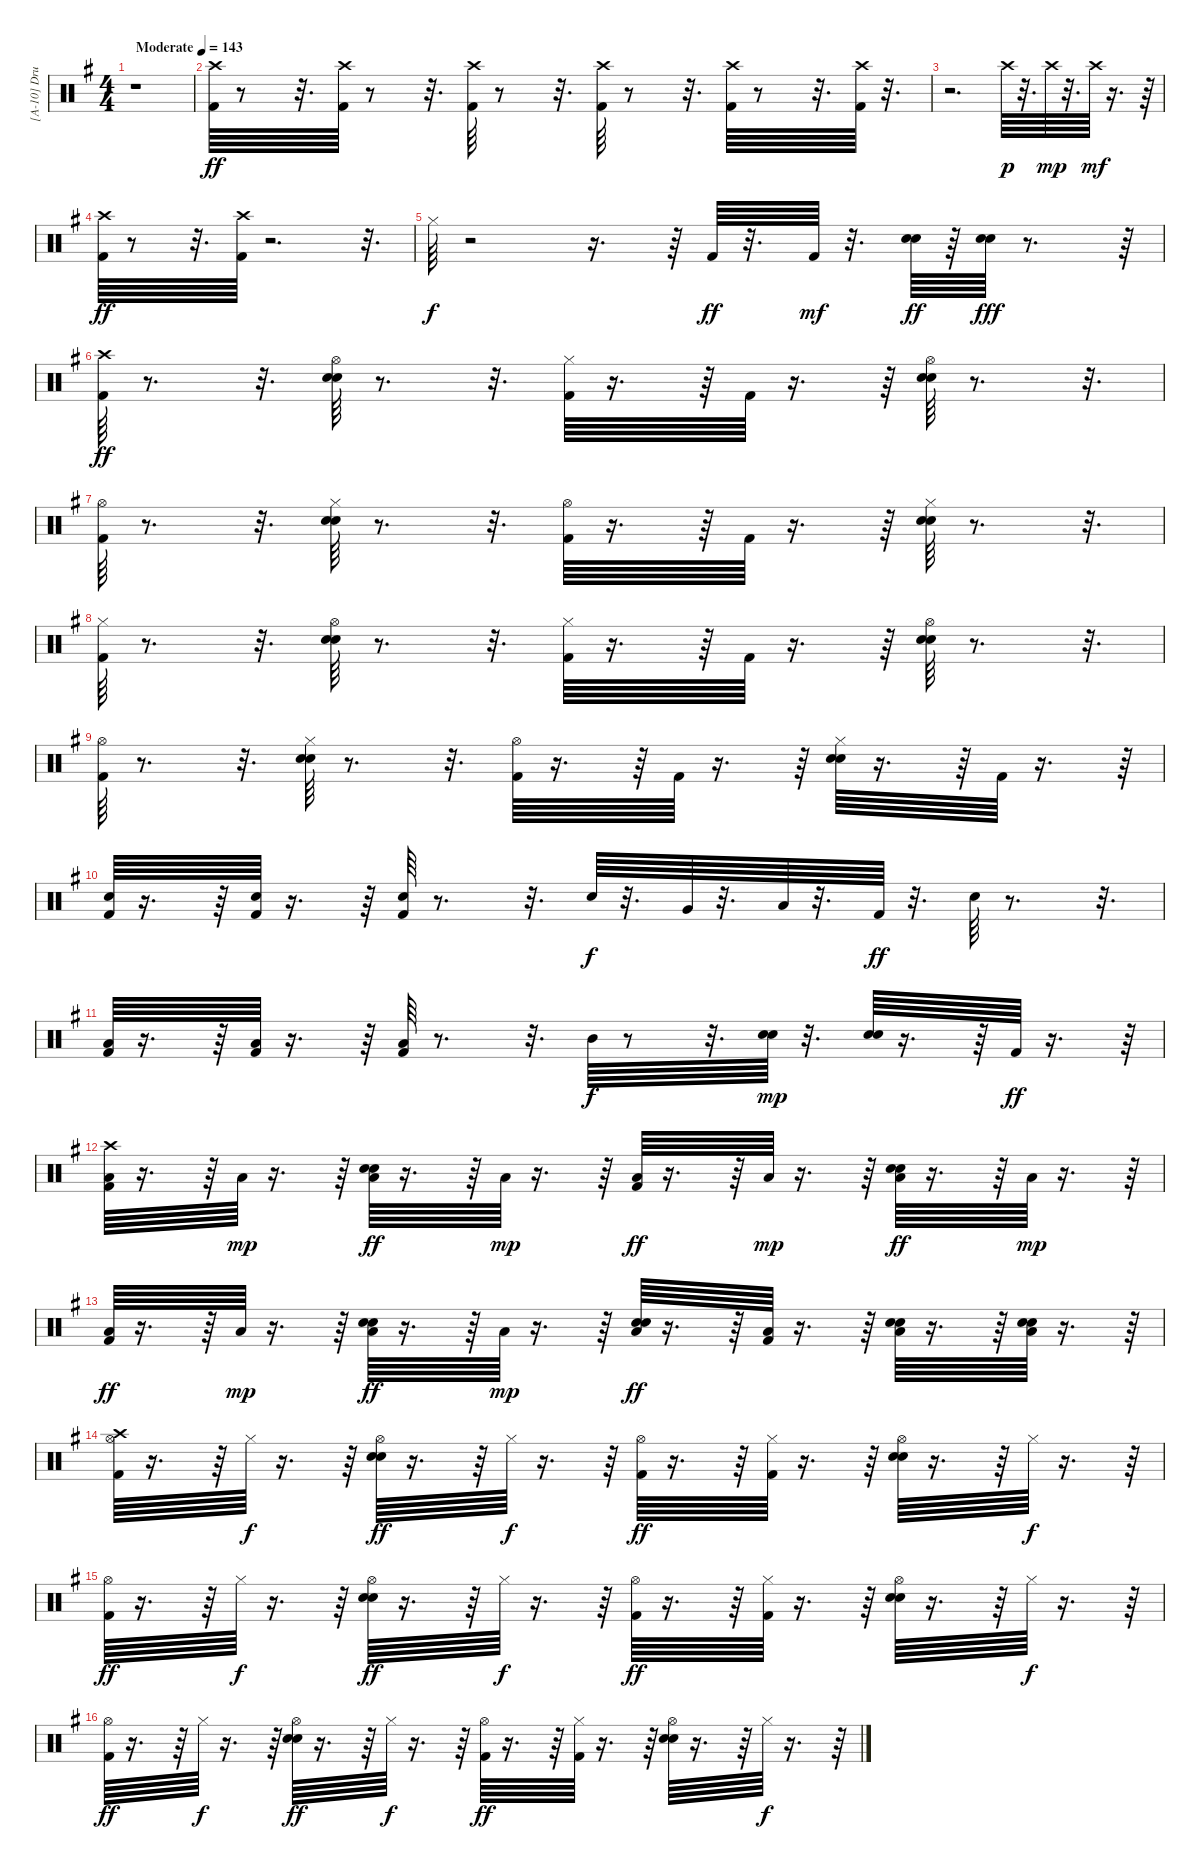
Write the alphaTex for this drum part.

\track ("[A-10] Drums" "[A-10] Dru") {instrument percussion}
\staff {score}
\articulation defaults
\ts (4 4)
\tempo (143 "Moderate")
\clef neutral
\ks g
r.1{dy ff} |
("Crash high (hit)" "Kick (hit) 2").64 r.8 r.32{d} ("Crash high (hit)" "Kick (hit) 2").64 r.8 r.32{d} ("Crash high (hit)" "Kick (hit) 2").64 r.8 r.32{d} ("Crash high (hit)" "Kick (hit) 2").64 r.8 r.32{d} ("Crash high (hit)" "Kick (hit) 2").64 r.8 r.32{d} ("Crash high (hit)" "Kick (hit) 2").64 r.32{d} |
r.2{d} "Crash high (hit)".64{dy p} r.32{d} "Crash high (hit)".64{dy mp} r.32{d} "Crash high (hit)".64{dy mf} r.16{d} r.64 |
("Crash high (hit)" "Kick (hit) 2").64{dy ff} r.8 r.32{d} ("Crash high (hit)" "Kick (hit) 2").64 r.2{d} r.32{d} |
"Hi-Hat (closed)".64{dy f} r.2 r.16{d} r.64 "Kick (hit) 2".64{dy ff} r.32{d} "Kick (hit) 2".64{dy mf} r.32{d} ("Electric Snare (hit)" "Snare (hit) 2").64{dy ff volume 12} r.64 ("Electric Snare (hit)" "Snare (hit) 2").64{dy fff} r.8{d} r.64 |
("Crash high (hit)" "Kick (hit) 2").64{dy ff} r.8{d} r.32{d} ("Hi-Hat (open)" "Electric Snare (hit)" "Snare (hit) 2").64 r.8{d} r.32{d} ("Hi-Hat (closed)" "Kick (hit) 2").64 r.16{d} r.64 "Kick (hit) 2".64 r.16{d} r.64 ("Hi-Hat (open)" "Electric Snare (hit)" "Snare (hit) 2").64 r.8{d} r.32{d} |
("Hi-Hat (open)" "Kick (hit) 2").64 r.8{d} r.32{d} ("Hi-Hat (closed)" "Electric Snare (hit)" "Snare (hit) 2").64 r.8{d} r.32{d} ("Hi-Hat (open)" "Kick (hit) 2").64 r.16{d} r.64 "Kick (hit) 2".64 r.16{d} r.64 ("Hi-Hat (closed)" "Electric Snare (hit)" "Snare (hit) 2").64 r.8{d} r.32{d} |
("Hi-Hat (closed)" "Kick (hit) 2").64 r.8{d} r.32{d} ("Hi-Hat (open)" "Electric Snare (hit)" "Snare (hit) 2").64 r.8{d} r.32{d} ("Hi-Hat (closed)" "Kick (hit) 2").64 r.16{d} r.64 "Kick (hit) 2".64 r.16{d} r.64 ("Hi-Hat (open)" "Electric Snare (hit)" "Snare (hit) 2").64 r.8{d} r.32{d} |
("Hi-Hat (open)" "Kick (hit) 2").64 r.8{d} r.32{d} ("Hi-Hat (closed)" "Electric Snare (hit)" "Snare (hit) 2").64 r.8{d} r.32{d} ("Hi-Hat (open)" "Kick (hit) 2").64 r.16{d} r.64 "Kick (hit) 2".64 r.16{d} r.64 ("Hi-Hat (closed)" "Electric Snare (hit)" "Snare (hit) 2").64 r.16{d} r.64 "Kick (hit) 2".64 r.16{d} r.64 |
("Snare (hit) 2" "Kick (hit) 2").64 r.16{d} r.64 ("Snare (hit) 2" "Kick (hit) 2").64 r.16{d} r.64 ("Snare (hit) 2" "Kick (hit) 2").64 r.8{d} r.32{d} "Snare (hit) 2".64{dy f} r.32{d} "Very Low Tom (hit)".64 r.32{d} "Low Floor Tom (hit)".64 r.32{d} "Kick (hit) 2".64{dy ff} r.32{d} "Snare (hit) 2".64 r.8{d} r.32{d} |
("Low Floor Tom (hit)" "Kick (hit) 2").64 r.16{d} r.64 ("Low Floor Tom (hit)" "Kick (hit) 2").64 r.16{d} r.64 ("Low Floor Tom (hit)" "Kick (hit) 2").64 r.8{d} r.32{d} "Mid Tom (hit)".64{dy f} r.8 r.32{d} ("Electric Snare (hit)" "Snare (hit) 2").64{dy mp} r.32{d} ("Electric Snare (hit)" "Snare (hit) 2").64 r.16{d} r.64 "Kick (hit) 2".64{dy ff} r.16{d} r.64 |
("Crash high (hit)" "Low Floor Tom (hit)" "Kick (hit) 2").64 r.16{d} r.64 "Low Floor Tom (hit)".64{dy mp} r.16{d} r.64 ("Low Floor Tom (hit)" "Electric Snare (hit)" "Snare (hit) 2").64{dy ff} r.16{d} r.64 "Low Floor Tom (hit)".64{dy mp} r.16{d} r.64 ("Low Floor Tom (hit)" "Kick (hit) 2").64{dy ff} r.16{d} r.64 "Low Floor Tom (hit)".64{dy mp} r.16{d} r.64 ("Low Floor Tom (hit)" "Electric Snare (hit)" "Snare (hit) 2").64{dy ff} r.16{d} r.64 "Low Floor Tom (hit)".64{dy mp} r.16{d} r.64 |
("Low Floor Tom (hit)" "Kick (hit) 2").64{dy ff} r.16{d} r.64 "Low Floor Tom (hit)".64{dy mp} r.16{d} r.64 ("Low Floor Tom (hit)" "Electric Snare (hit)" "Snare (hit) 2").64{dy ff} r.16{d} r.64 "Low Floor Tom (hit)".64{dy mp} r.16{d} r.64 ("Low Floor Tom (hit)" "Electric Snare (hit)" "Snare (hit) 2").64{dy ff} r.16{d} r.64 ("Low Floor Tom (hit)" "Kick (hit) 2").64 r.16{d} r.64 ("Low Floor Tom (hit)" "Electric Snare (hit)" "Snare (hit) 2").64 r.16{d} r.64 ("Low Floor Tom (hit)" "Electric Snare (hit)" "Snare (hit) 2").64 r.16{d} r.64 |
("Crash high (hit)" "Hi-Hat (open)" "Kick (hit) 2").64 r.16{d} r.64 "Hi-Hat (closed)".64{dy f} r.16{d} r.64 ("Hi-Hat (open)" "Electric Snare (hit)" "Snare (hit) 2").64{dy ff} r.16{d} r.64 "Hi-Hat (closed)".64{dy f} r.16{d} r.64 ("Hi-Hat (open)" "Kick (hit) 2").64{dy ff} r.16{d} r.64 ("Hi-Hat (closed)" "Kick (hit) 2").64 r.16{d} r.64 ("Hi-Hat (open)" "Electric Snare (hit)" "Snare (hit) 2").64 r.16{d} r.64 "Hi-Hat (closed)".64{dy f} r.16{d} r.64 |
("Hi-Hat (open)" "Kick (hit) 2").64{dy ff} r.16{d} r.64 "Hi-Hat (closed)".64{dy f} r.16{d} r.64 ("Hi-Hat (open)" "Electric Snare (hit)" "Snare (hit) 2").64{dy ff} r.16{d} r.64 "Hi-Hat (closed)".64{dy f} r.16{d} r.64 ("Hi-Hat (open)" "Kick (hit) 2").64{dy ff} r.16{d} r.64 ("Hi-Hat (closed)" "Kick (hit) 2").64 r.16{d} r.64 ("Hi-Hat (open)" "Electric Snare (hit)" "Snare (hit) 2").64 r.16{d} r.64 "Hi-Hat (closed)".64{dy f} r.16{d} r.64 |
("Hi-Hat (open)" "Kick (hit) 2").64{dy ff} r.16{d} r.64 "Hi-Hat (closed)".64{dy f} r.16{d} r.64 ("Hi-Hat (open)" "Electric Snare (hit)" "Snare (hit) 2").64{dy ff} r.16{d} r.64 "Hi-Hat (closed)".64{dy f} r.16{d} r.64 ("Hi-Hat (open)" "Kick (hit) 2").64{dy ff} r.16{d} r.64 ("Hi-Hat (closed)" "Kick (hit) 2").64 r.16{d} r.64 ("Hi-Hat (open)" "Electric Snare (hit)" "Snare (hit) 2").64 r.16{d} r.64 "Hi-Hat (closed)".64{dy f} r.16{d} r.64
